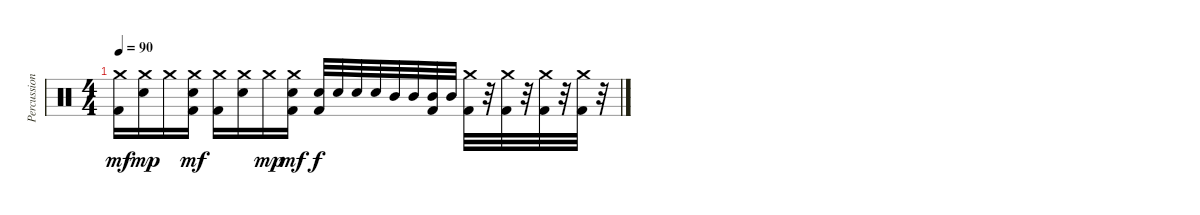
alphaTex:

\track ("Percussioni" "Percussion") {instrument percussion}
\staff {score}
\articulation defaults
\ts (4 4)
\tempo 90
\clef neutral
\ks c
("Kick (hit) 2" "Crash medium (hit)").16{dy mf} ("Electric Snare (hit)" "Crash medium (hit)").16{dy mp} "Crash medium (hit)".16 ("Kick (hit) 2" "Electric Snare (hit)" "Crash medium (hit)").16{dy mf} ("Kick (hit) 2" "Crash medium (hit)").16 ("Electric Snare (hit)" "Crash medium (hit)").16 "Crash medium (hit)".16{dy mp} ("Kick (hit) 2" "Electric Snare (hit)" "Crash medium (hit)").16{dy mf} ("Kick (hit) 2" "Electric Snare (hit)").32{dy f} "Electric Snare (hit)".32 "Electric Snare (hit)".32 "Electric Snare (hit)".32 "Mid Tom (hit)".32 "Mid Tom (hit)".32 ("Kick (hit) 2" "Mid Tom (hit)").32 "Mid Tom (hit)".32 ("Kick (hit) 2" "Crash medium (hit)").32 r.32 ("Kick (hit) 2" "Crash medium (hit)").32 r.32 ("Kick (hit) 2" "Crash medium (hit)").32 r.32 ("Kick (hit) 2" "Crash medium (hit)").32 r.32
